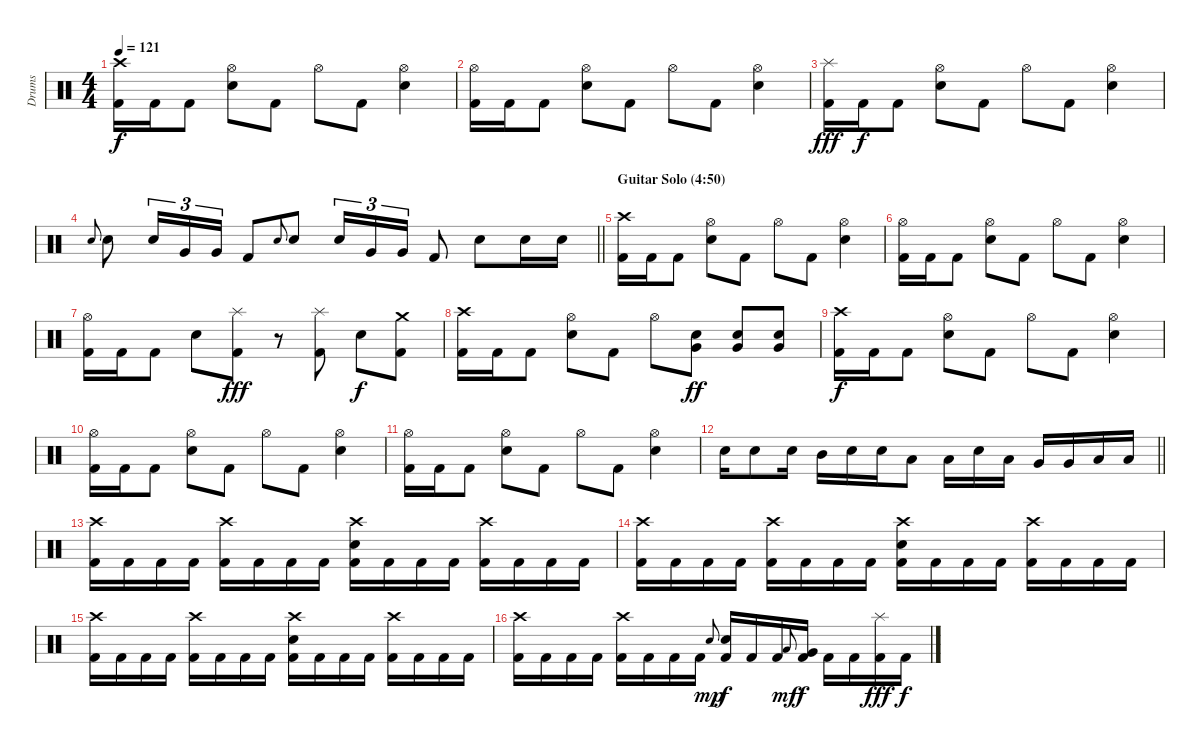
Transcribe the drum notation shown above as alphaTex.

\track ("Drums" "Drums") {instrument percussion}
\staff {score}
\articulation defaults
\ts (4 4)
\tempo 121
\clef neutral
\ks c
("Crash high (hit)" "Kick (hit) 2").16{dy f} "Kick (hit) 2".16 "Kick (hit) 2".8 ("Hi-Hat (open)" "Electric Snare (hit)").8 "Kick (hit) 2".8 "Hi-Hat (open)".8 "Kick (hit) 2".8 ("Hi-Hat (open)" "Electric Snare (hit)").4 |
("Hi-Hat (open)" "Kick (hit) 2").16 "Kick (hit) 2".16 "Kick (hit) 2".8 ("Hi-Hat (open)" "Electric Snare (hit)").8 "Kick (hit) 2".8 "Hi-Hat (open)".8 "Kick (hit) 2".8 ("Hi-Hat (open)" "Electric Snare (hit)").4 |
("Splash (hit)" "Kick (hit) 2").16{dy fff} "Kick (hit) 2".16{dy f} "Kick (hit) 2".8 ("Hi-Hat (open)" "Electric Snare (hit)").8 "Kick (hit) 2".8 "Hi-Hat (open)".8 "Kick (hit) 2".8 ("Hi-Hat (open)" "Electric Snare (hit)").4 |
\barLineRight lightlight "Electric Snare (hit)".8{gr onbeat} "Electric Snare (hit)".8 "Electric Snare (hit)".16{tu (3 2)} "Very Low Tom (hit)".16{tu (3 2)} "Very Low Tom (hit)".16{tu (3 2)} "Kick (hit) 2".8 "Electric Snare (hit)".8{gr onbeat} "Electric Snare (hit)".8 "Electric Snare (hit)".16{tu (3 2)} "Very Low Tom (hit)".16{tu (3 2)} "Very Low Tom (hit)".16{tu (3 2)} "Kick (hit) 2".8 "Electric Snare (hit)".8 "Electric Snare (hit)".16 "Electric Snare (hit)".16
|
\section ("" "Guitar Solo (4:50)")
("Crash high (hit)" "Kick (hit) 2").16 "Kick (hit) 2".16 "Kick (hit) 2".8 ("Hi-Hat (open)" "Electric Snare (hit)").8 "Kick (hit) 2".8 "Hi-Hat (open)".8 "Kick (hit) 2".8 ("Hi-Hat (open)" "Electric Snare (hit)").4 |
("Hi-Hat (open)" "Kick (hit) 2").16 "Kick (hit) 2".16 "Kick (hit) 2".8 ("Hi-Hat (open)" "Electric Snare (hit)").8 "Kick (hit) 2".8 "Hi-Hat (open)".8 "Kick (hit) 2".8 ("Hi-Hat (open)" "Electric Snare (hit)").4 |
("Hi-Hat (open)" "Kick (hit) 2").16 "Kick (hit) 2".16 "Kick (hit) 2".8 "Electric Snare (hit)".8 ("Splash (hit)" "Kick (hit) 2").8{dy fff} r.8 ("Splash (hit)" "Kick (hit) 2").8 "Electric Snare (hit)".8{dy f} ("Crash medium (hit)" "Kick (hit) 2").8 |
("Crash high (hit)" "Kick (hit) 2").16 "Kick (hit) 2".16 "Kick (hit) 2".8 ("Hi-Hat (open)" "Electric Snare (hit)").8 "Kick (hit) 2".8 "Hi-Hat (open)".8 ("Electric Snare (hit)" "Very Low Tom (hit)").8{dy ff} ("Electric Snare (hit)" "Very Low Tom (hit)").8 ("Electric Snare (hit)" "Very Low Tom (hit)").8 |
("Crash high (hit)" "Kick (hit) 2").16{dy f} "Kick (hit) 2".16 "Kick (hit) 2".8 ("Hi-Hat (open)" "Electric Snare (hit)").8 "Kick (hit) 2".8 "Hi-Hat (open)".8 "Kick (hit) 2".8 ("Hi-Hat (open)" "Electric Snare (hit)").4 |
("Hi-Hat (open)" "Kick (hit) 2").16 "Kick (hit) 2".16 "Kick (hit) 2".8 ("Hi-Hat (open)" "Electric Snare (hit)").8 "Kick (hit) 2".8 "Hi-Hat (open)".8 "Kick (hit) 2".8 ("Hi-Hat (open)" "Electric Snare (hit)").4 |
("Hi-Hat (open)" "Kick (hit) 2").16 "Kick (hit) 2".16 "Kick (hit) 2".8 ("Hi-Hat (open)" "Electric Snare (hit)").8 "Kick (hit) 2".8 "Hi-Hat (open)".8 "Kick (hit) 2".8 ("Hi-Hat (open)" "Electric Snare (hit)").4 |
\barLineRight lightlight "Electric Snare (hit)".16 "Electric Snare (hit)".8 "Electric Snare (hit)".16 "Mid Tom (hit)".16 "Electric Snare (hit)".16 "Electric Snare (hit)".16 "Low Tom (hit)".8 "Low Tom (hit)".16 "Electric Snare (hit)".16 "Low Tom (hit)".16 "Very Low Tom (hit)".16 "Very Low Tom (hit)".16 "Low Floor Tom (hit)".16 "Low Floor Tom (hit)".16
|
("Crash high (hit)" "Kick (hit) 2").16 "Kick (hit) 2".16 "Kick (hit) 2".16 "Kick (hit) 2".16 ("Crash high (hit)" "Kick (hit) 2").16 "Kick (hit) 2".16 "Kick (hit) 2".16 "Kick (hit) 2".16 ("Crash high (hit)" "Electric Snare (hit)" "Kick (hit) 2").16 "Kick (hit) 2".16 "Kick (hit) 2".16 "Kick (hit) 2".16 ("Crash high (hit)" "Kick (hit) 2").16 "Kick (hit) 2".16 "Kick (hit) 2".16 "Kick (hit) 2".16 |
("Crash high (hit)" "Kick (hit) 2").16 "Kick (hit) 2".16 "Kick (hit) 2".16 "Kick (hit) 2".16 ("Crash high (hit)" "Kick (hit) 2").16 "Kick (hit) 2".16 "Kick (hit) 2".16 "Kick (hit) 2".16 ("Crash high (hit)" "Electric Snare (hit)" "Kick (hit) 2").16 "Kick (hit) 2".16 "Kick (hit) 2".16 "Kick (hit) 2".16 ("Crash high (hit)" "Kick (hit) 2").16 "Kick (hit) 2".16 "Kick (hit) 2".16 "Kick (hit) 2".16 |
("Crash high (hit)" "Kick (hit) 2").16 "Kick (hit) 2".16 "Kick (hit) 2".16 "Kick (hit) 2".16 ("Crash high (hit)" "Kick (hit) 2").16 "Kick (hit) 2".16 "Kick (hit) 2".16 "Kick (hit) 2".16 ("Crash high (hit)" "Electric Snare (hit)" "Kick (hit) 2").16 "Kick (hit) 2".16 "Kick (hit) 2".16 "Kick (hit) 2".16 ("Crash high (hit)" "Kick (hit) 2").16 "Kick (hit) 2".16 "Kick (hit) 2".16 "Kick (hit) 2".16 |
("Crash high (hit)" "Kick (hit) 2").16 "Kick (hit) 2".16 "Kick (hit) 2".16 "Kick (hit) 2".16 ("Crash high (hit)" "Kick (hit) 2").16 "Kick (hit) 2".16 "Kick (hit) 2".16 "Kick (hit) 2".16 "Electric Snare (hit)".8{gr onbeat dy mp} ("Electric Snare (hit)" "Kick (hit) 2").16{dy f} "Kick (hit) 2".16 "Kick (hit) 2".16 "Low Tom (hit)".8{gr onbeat dy mf} ("Very Low Tom (hit)" "Kick (hit) 2").16{dy f} "Kick (hit) 2".16 "Kick (hit) 2".16 ("Splash (hit)" "Kick (hit) 2").16{dy fff} "Kick (hit) 2".16{dy f}
